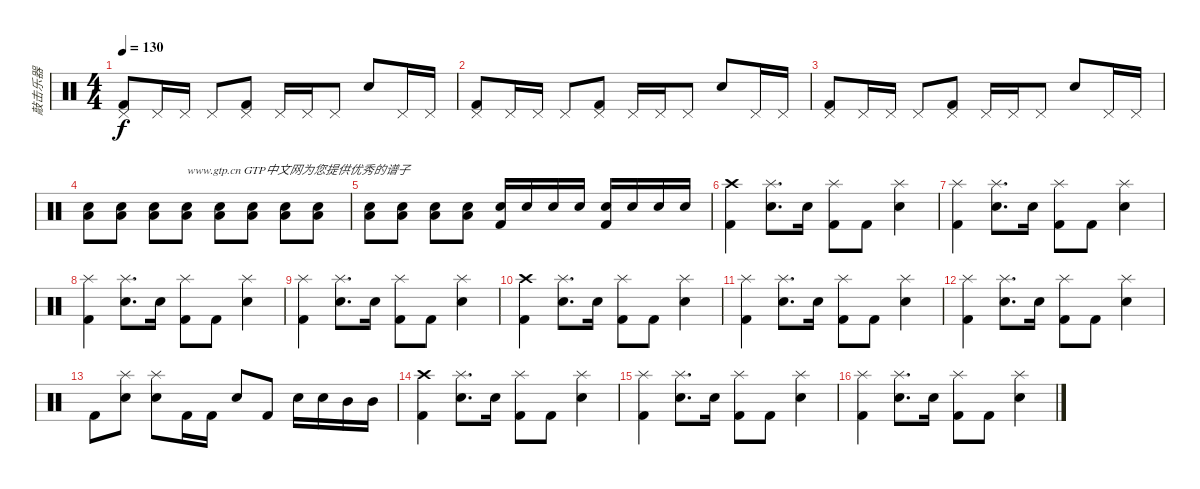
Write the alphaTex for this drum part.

\track ("敲击乐器" "敲击乐器") {instrument percussion}
\staff {score}
\articulation defaults
\ts (4 4)
\tempo 130
\clef neutral
\ks c
("Pedal Hi-Hat (hit)" "Kick (hit) 2").8{dy f} "Pedal Hi-Hat (hit)".16 "Pedal Hi-Hat (hit)".16 "Pedal Hi-Hat (hit)".8 ("Pedal Hi-Hat (hit)" "Kick (hit) 2").8 "Pedal Hi-Hat (hit)".16 "Pedal Hi-Hat (hit)".16 "Pedal Hi-Hat (hit)".8 "Snare (hit) 2".8 "Pedal Hi-Hat (hit)".16 "Pedal Hi-Hat (hit)".16 |
("Pedal Hi-Hat (hit)" "Kick (hit) 2").8 "Pedal Hi-Hat (hit)".16 "Pedal Hi-Hat (hit)".16 "Pedal Hi-Hat (hit)".8 ("Pedal Hi-Hat (hit)" "Kick (hit) 2").8 "Pedal Hi-Hat (hit)".16 "Pedal Hi-Hat (hit)".16 "Pedal Hi-Hat (hit)".8 "Snare (hit) 2".8 "Pedal Hi-Hat (hit)".16 "Pedal Hi-Hat (hit)".16 |
("Pedal Hi-Hat (hit)" "Kick (hit) 2").8 "Pedal Hi-Hat (hit)".16 "Pedal Hi-Hat (hit)".16 "Pedal Hi-Hat (hit)".8 ("Pedal Hi-Hat (hit)" "Kick (hit) 2").8 "Pedal Hi-Hat (hit)".16 "Pedal Hi-Hat (hit)".16 "Pedal Hi-Hat (hit)".8 "Snare (hit) 2".8 "Pedal Hi-Hat (hit)".16 "Pedal Hi-Hat (hit)".16 |
("Snare (hit) 2" "Low Floor Tom (hit)").8 ("Snare (hit) 2" "Low Floor Tom (hit)").8 ("Snare (hit) 2" "Low Floor Tom (hit)").8 ("Snare (hit) 2" "Low Floor Tom (hit)").8{txt "www.gtp.cn GTP中文网为您提供优秀的谱子"} ("Snare (hit) 2" "Low Floor Tom (hit)").8 ("Snare (hit) 2" "Low Floor Tom (hit)").8 ("Snare (hit) 2" "Low Floor Tom (hit)").8 ("Snare (hit) 2" "Low Floor Tom (hit)").8 |
("Snare (hit) 2" "Low Floor Tom (hit)").8 ("Snare (hit) 2" "Low Floor Tom (hit)").8 ("Snare (hit) 2" "Low Floor Tom (hit)").8 ("Snare (hit) 2" "Low Floor Tom (hit)").8 ("Snare (hit) 2" "Kick (hit) 2").16 "Snare (hit) 2".16 "Snare (hit) 2".16 "Snare (hit) 2".16 ("Snare (hit) 2" "Kick (hit) 2").16 "Snare (hit) 2".16 "Snare (hit) 2".16 "Snare (hit) 2".16 |
("Crash high (hit)" "Kick (hit) 2").4 ("Splash (hit)" "Snare (hit) 2").8{d} "Snare (hit) 2".16 ("Splash (hit)" "Kick (hit) 2").8 "Kick (hit) 2".8 ("Splash (hit)" "Snare (hit) 2").4 |
("Splash (hit)" "Kick (hit) 2").4 ("Splash (hit)" "Snare (hit) 2").8{d} "Snare (hit) 2".16 ("Splash (hit)" "Kick (hit) 2").8 "Kick (hit) 2".8 ("Splash (hit)" "Snare (hit) 2").4 |
("Splash (hit)" "Kick (hit) 2").4 ("Splash (hit)" "Snare (hit) 2").8{d} "Snare (hit) 2".16 ("Splash (hit)" "Kick (hit) 2").8 "Kick (hit) 2".8 ("Splash (hit)" "Snare (hit) 2").4 |
("Splash (hit)" "Kick (hit) 2").4 ("Splash (hit)" "Snare (hit) 2").8{d} "Snare (hit) 2".16 ("Splash (hit)" "Kick (hit) 2").8 "Kick (hit) 2".8 ("Splash (hit)" "Snare (hit) 2").4 |
("Crash high (hit)" "Kick (hit) 2").4 ("Splash (hit)" "Snare (hit) 2").8{d} "Snare (hit) 2".16 ("Splash (hit)" "Kick (hit) 2").8 "Kick (hit) 2".8 ("Splash (hit)" "Snare (hit) 2").4 |
("Splash (hit)" "Kick (hit) 2").4 ("Splash (hit)" "Snare (hit) 2").8{d} "Snare (hit) 2".16 ("Splash (hit)" "Kick (hit) 2").8 "Kick (hit) 2".8 ("Splash (hit)" "Snare (hit) 2").4 |
("Splash (hit)" "Kick (hit) 2").4 ("Splash (hit)" "Snare (hit) 2").8{d} "Snare (hit) 2".16 ("Splash (hit)" "Kick (hit) 2").8 "Kick (hit) 2".8 ("Splash (hit)" "Snare (hit) 2").4 |
"Kick (hit) 2".8 ("Splash (hit)" "Snare (hit) 2").8 ("Splash (hit)" "Snare (hit) 2").8 "Kick (hit) 2".16 "Kick (hit) 2".16 "Snare (hit) 2".8 "Kick (hit) 2".8 "Snare (hit) 2".16 "Snare (hit) 2".16 "Mid Tom (hit)".16 "Mid Tom (hit)".16 |
("Crash high (hit)" "Kick (hit) 2").4 ("Splash (hit)" "Snare (hit) 2").8{d} "Snare (hit) 2".16 ("Splash (hit)" "Kick (hit) 2").8 "Kick (hit) 2".8 ("Splash (hit)" "Snare (hit) 2").4 |
("Splash (hit)" "Kick (hit) 2").4 ("Splash (hit)" "Snare (hit) 2").8{d} "Snare (hit) 2".16 ("Splash (hit)" "Kick (hit) 2").8 "Kick (hit) 2".8 ("Splash (hit)" "Snare (hit) 2").4 |
("Splash (hit)" "Kick (hit) 2").4 ("Splash (hit)" "Snare (hit) 2").8{d} "Snare (hit) 2".16 ("Splash (hit)" "Kick (hit) 2").8 "Kick (hit) 2".8 ("Splash (hit)" "Snare (hit) 2").4
